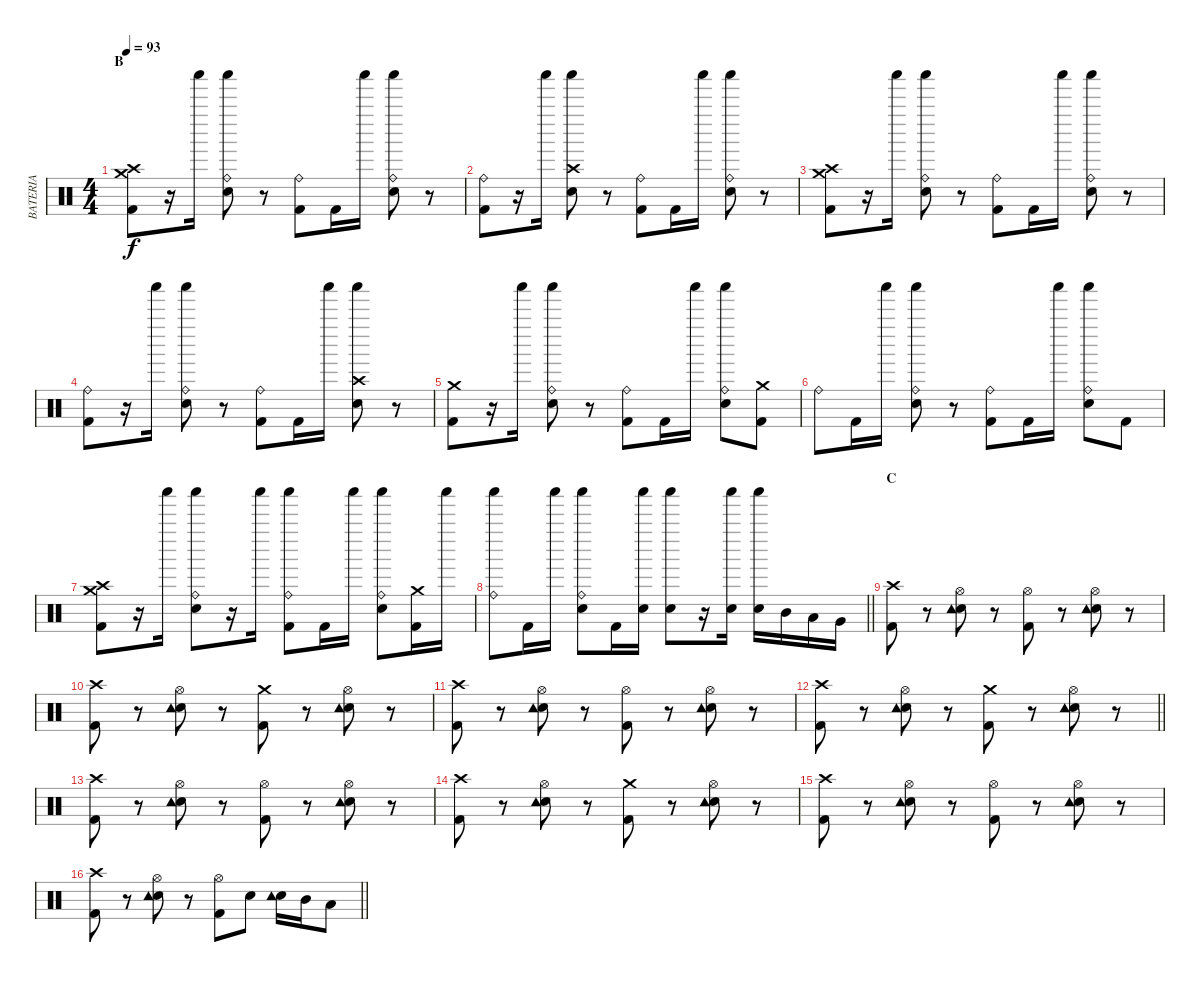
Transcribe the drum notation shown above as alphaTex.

\track ("BATERIA" "BATERIA") {instrument percussion}
\staff {score}
\articulation defaults
\ts (4 4)
\section ("" "B")
\tempo 93
\clef neutral
\ks c
("Kick (hit) 2" "Crash high (hit)" "Crash medium (hit)").8{dy f} r.16 "Shaker (hit)".16 ("Electric Snare (hit)" "Ride (bell)" "Shaker (hit)").8 r.8 ("Kick (hit) 2" "Ride (bell)").8 "Kick (hit) 2".16 "Shaker (hit)".16 ("Electric Snare (hit)" "Ride (bell)" "Shaker (hit)").8 r.8 |
("Kick (hit) 2" "Ride (bell)").8 r.16 "Shaker (hit)".16 ("Electric Snare (hit)" "Shaker (hit)" "Crash high (hit)").8 r.8 ("Kick (hit) 2" "Ride (bell)").8 "Kick (hit) 2".16 "Shaker (hit)".16 ("Electric Snare (hit)" "Ride (bell)" "Shaker (hit)").8 r.8 |
("Kick (hit) 2" "Crash high (hit)" "Crash medium (hit)").8 r.16 "Shaker (hit)".16 ("Electric Snare (hit)" "Ride (bell)" "Shaker (hit)").8 r.8 ("Kick (hit) 2" "Ride (bell)").8 "Kick (hit) 2".16 "Shaker (hit)".16 ("Electric Snare (hit)" "Ride (bell)" "Shaker (hit)").8 r.8 |
("Kick (hit) 2" "Ride (bell)").8 r.16 "Shaker (hit)".16 ("Electric Snare (hit)" "Ride (bell)" "Shaker (hit)").8 r.8 ("Kick (hit) 2" "Ride (bell)").8 "Kick (hit) 2".16 "Shaker (hit)".16 ("Electric Snare (hit)" "Shaker (hit)" "Crash high (hit)").8 r.8 |
("Kick (hit) 2" "Crash medium (hit)").8 r.16 "Shaker (hit)".16 ("Electric Snare (hit)" "Ride (bell)" "Shaker (hit)").8 r.8 ("Kick (hit) 2" "Ride (bell)").8 "Kick (hit) 2".16 "Shaker (hit)".16 ("Electric Snare (hit)" "Ride (bell)" "Shaker (hit)").8 ("Kick (hit) 2" "Crash medium (hit)").8 |
"Ride (bell)".8 "Kick (hit) 2".16 "Shaker (hit)".16 ("Electric Snare (hit)" "Ride (bell)" "Shaker (hit)").8 r.8 ("Kick (hit) 2" "Ride (bell)").8 "Kick (hit) 2".16 "Shaker (hit)".16 ("Electric Snare (hit)" "Ride (bell)" "Shaker (hit)").8 "Kick (hit) 2".8 |
("Kick (hit) 2" "Crash high (hit)" "Crash medium (hit)").8 r.16 "Shaker (hit)".16 ("Electric Snare (hit)" "Ride (bell)" "Shaker (hit)").8 r.16 "Shaker (hit)".16 ("Kick (hit) 2" "Ride (bell)" "Shaker (hit)").8 "Kick (hit) 2".16 "Shaker (hit)".16 ("Electric Snare (hit)" "Ride (bell)" "Shaker (hit)").8 ("Kick (hit) 2" "Crash medium (hit)").16 "Shaker (hit)".16 |
\barLineRight lightlight
("Ride (bell)" "Shaker (hit)").8 "Kick (hit) 2".16 "Shaker (hit)".16 ("Electric Snare (hit)" "Ride (bell)" "Shaker (hit)").8 "Kick (hit) 2".16 ("Electric Snare (hit)" "Shaker (hit)").16 ("Electric Snare (hit)" "Shaker (hit)").8 r.16 ("Electric Snare (hit)" "Shaker (hit)").16 ("Electric Snare (hit)" "Shaker (hit)").16 "Mid Tom (hit)".16 "Low Tom (hit)".16 "Very Low Tom (hit)".16 |
\section ("" "C")
("Kick (hit) 2" "Crash high (hit)").8 r.8 ("Electric Snare (hit)" "Hi-Hat (open)" "Tambourine (hit)").8 r.8 ("Kick (hit) 2" "Hi-Hat (open)").8 r.8 ("Electric Snare (hit)" "Hi-Hat (open)" "Tambourine (hit)").8 r.8 |
("Kick (hit) 2" "Crash high (hit)").8 r.8 ("Electric Snare (hit)" "Hi-Hat (open)" "Tambourine (hit)").8 r.8 ("Kick (hit) 2" "Crash medium (hit)").8 r.8 ("Electric Snare (hit)" "Hi-Hat (open)" "Tambourine (hit)").8 r.8 |
("Kick (hit) 2" "Crash high (hit)").8 r.8 ("Electric Snare (hit)" "Hi-Hat (open)" "Tambourine (hit)").8 r.8 ("Kick (hit) 2" "Hi-Hat (open)").8 r.8 ("Electric Snare (hit)" "Hi-Hat (open)" "Tambourine (hit)").8 r.8 |
\barLineRight lightlight
("Kick (hit) 2" "Crash high (hit)").8 r.8 ("Electric Snare (hit)" "Hi-Hat (open)" "Tambourine (hit)").8 r.8 ("Kick (hit) 2" "Crash medium (hit)").8 r.8 ("Electric Snare (hit)" "Hi-Hat (open)" "Tambourine (hit)").8 r.8 |
("Kick (hit) 2" "Crash high (hit)").8 r.8 ("Electric Snare (hit)" "Hi-Hat (open)" "Tambourine (hit)").8 r.8 ("Kick (hit) 2" "Hi-Hat (open)").8 r.8 ("Electric Snare (hit)" "Hi-Hat (open)" "Tambourine (hit)").8 r.8 |
("Kick (hit) 2" "Crash high (hit)").8 r.8 ("Electric Snare (hit)" "Hi-Hat (open)" "Tambourine (hit)").8 r.8 ("Kick (hit) 2" "Crash medium (hit)").8 r.8 ("Electric Snare (hit)" "Hi-Hat (open)" "Tambourine (hit)").8 r.8 |
("Kick (hit) 2" "Crash high (hit)").8 r.8 ("Electric Snare (hit)" "Hi-Hat (open)" "Tambourine (hit)").8 r.8 ("Kick (hit) 2" "Hi-Hat (open)").8 r.8 ("Electric Snare (hit)" "Hi-Hat (open)" "Tambourine (hit)").8 r.8 |
\barLineRight lightlight
("Kick (hit) 2" "Crash high (hit)").8 r.8 ("Electric Snare (hit)" "Hi-Hat (open)" "Tambourine (hit)").8 r.8 ("Kick (hit) 2" "Hi-Hat (open)").8 "Electric Snare (hit)".8 ("Electric Snare (hit)" "Tambourine (hit)").16 "Mid Tom (hit)".16 "Low Tom (hit)".8
